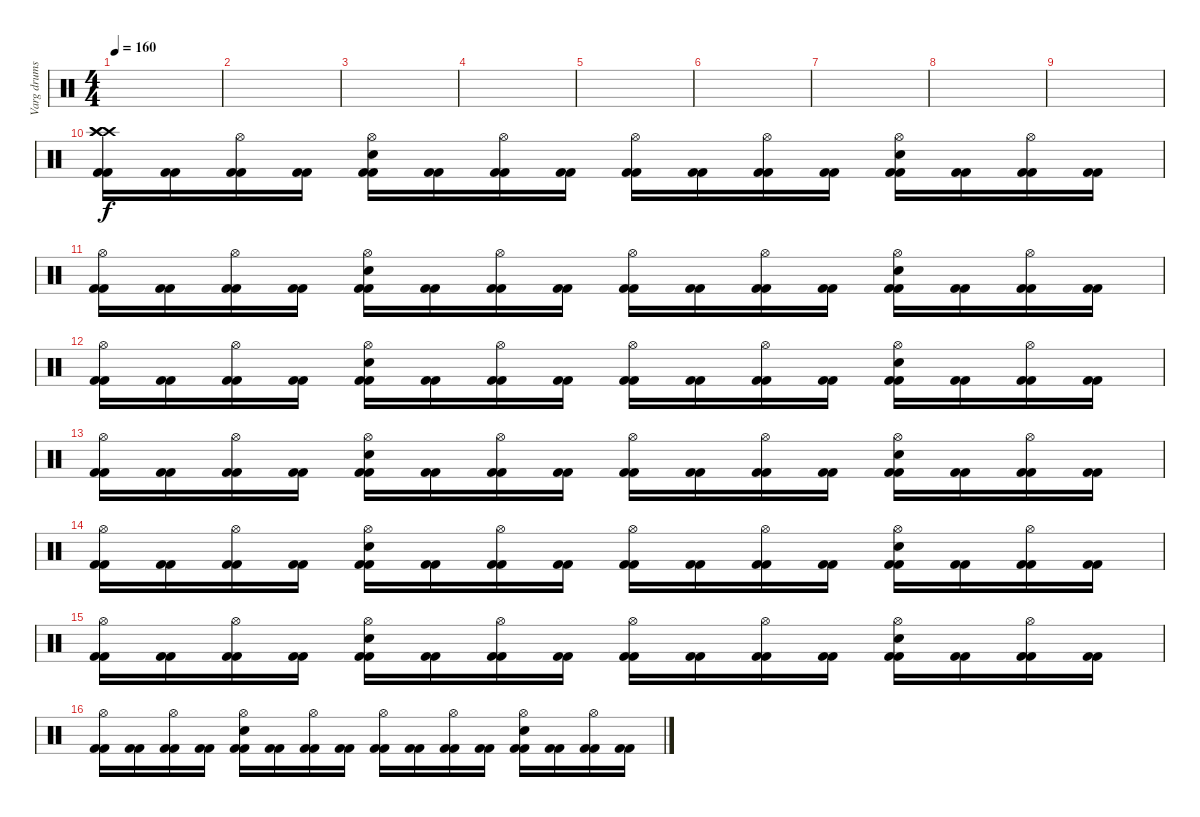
\track ("Varg drums" "Varg drums") {instrument percussion}
\staff {score}
\articulation defaults
\ts (4 4)
\tempo 160
\clef neutral
\ks c
|
|
|
|
|
|
|
|
|
("Crash high (hit)" "Crash high (hit)" "Crash high (hit)" "Kick (hit) 2" "Kick (hit) 2").16 ("Kick (hit) 2" "Kick (hit) 2").16 ("Hi-Hat (open)" "Kick (hit) 2" "Kick (hit) 2").16 ("Kick (hit) 2" "Kick (hit) 2").16 ("Hi-Hat (open)" "Electric Snare (hit)" "Kick (hit) 2" "Kick (hit) 2").16 ("Kick (hit) 2" "Kick (hit) 2").16 ("Hi-Hat (open)" "Kick (hit) 2" "Kick (hit) 2").16 ("Kick (hit) 2" "Kick (hit) 2").16 ("Hi-Hat (open)" "Kick (hit) 2" "Kick (hit) 2").16 ("Kick (hit) 2" "Kick (hit) 2").16 ("Hi-Hat (open)" "Kick (hit) 2" "Kick (hit) 2").16 ("Kick (hit) 2" "Kick (hit) 2").16 ("Hi-Hat (open)" "Electric Snare (hit)" "Kick (hit) 2" "Kick (hit) 2").16 ("Kick (hit) 2" "Kick (hit) 2").16 ("Hi-Hat (open)" "Kick (hit) 2" "Kick (hit) 2").16 ("Kick (hit) 2" "Kick (hit) 2").16 |
("Hi-Hat (open)" "Kick (hit) 2" "Kick (hit) 2").16 ("Kick (hit) 2" "Kick (hit) 2").16 ("Hi-Hat (open)" "Kick (hit) 2" "Kick (hit) 2").16 ("Kick (hit) 2" "Kick (hit) 2").16 ("Hi-Hat (open)" "Electric Snare (hit)" "Kick (hit) 2" "Kick (hit) 2").16 ("Kick (hit) 2" "Kick (hit) 2").16 ("Hi-Hat (open)" "Kick (hit) 2" "Kick (hit) 2").16 ("Kick (hit) 2" "Kick (hit) 2").16 ("Hi-Hat (open)" "Kick (hit) 2" "Kick (hit) 2").16 ("Kick (hit) 2" "Kick (hit) 2").16 ("Hi-Hat (open)" "Kick (hit) 2" "Kick (hit) 2").16 ("Kick (hit) 2" "Kick (hit) 2").16 ("Hi-Hat (open)" "Electric Snare (hit)" "Kick (hit) 2" "Kick (hit) 2").16 ("Kick (hit) 2" "Kick (hit) 2").16 ("Hi-Hat (open)" "Kick (hit) 2" "Kick (hit) 2").16 ("Kick (hit) 2" "Kick (hit) 2").16 |
("Hi-Hat (open)" "Kick (hit) 2" "Kick (hit) 2").16 ("Kick (hit) 2" "Kick (hit) 2").16 ("Hi-Hat (open)" "Kick (hit) 2" "Kick (hit) 2").16 ("Kick (hit) 2" "Kick (hit) 2").16 ("Hi-Hat (open)" "Electric Snare (hit)" "Kick (hit) 2" "Kick (hit) 2").16 ("Kick (hit) 2" "Kick (hit) 2").16 ("Hi-Hat (open)" "Kick (hit) 2" "Kick (hit) 2").16 ("Kick (hit) 2" "Kick (hit) 2").16 ("Hi-Hat (open)" "Kick (hit) 2" "Kick (hit) 2").16 ("Kick (hit) 2" "Kick (hit) 2").16 ("Hi-Hat (open)" "Kick (hit) 2" "Kick (hit) 2").16 ("Kick (hit) 2" "Kick (hit) 2").16 ("Hi-Hat (open)" "Electric Snare (hit)" "Kick (hit) 2" "Kick (hit) 2").16 ("Kick (hit) 2" "Kick (hit) 2").16 ("Hi-Hat (open)" "Kick (hit) 2" "Kick (hit) 2").16 ("Kick (hit) 2" "Kick (hit) 2").16 |
("Hi-Hat (open)" "Kick (hit) 2" "Kick (hit) 2").16 ("Kick (hit) 2" "Kick (hit) 2").16 ("Hi-Hat (open)" "Kick (hit) 2" "Kick (hit) 2").16 ("Kick (hit) 2" "Kick (hit) 2").16 ("Hi-Hat (open)" "Electric Snare (hit)" "Kick (hit) 2" "Kick (hit) 2").16 ("Kick (hit) 2" "Kick (hit) 2").16 ("Hi-Hat (open)" "Kick (hit) 2" "Kick (hit) 2").16 ("Kick (hit) 2" "Kick (hit) 2").16 ("Hi-Hat (open)" "Kick (hit) 2" "Kick (hit) 2").16 ("Kick (hit) 2" "Kick (hit) 2").16 ("Hi-Hat (open)" "Kick (hit) 2" "Kick (hit) 2").16 ("Kick (hit) 2" "Kick (hit) 2").16 ("Hi-Hat (open)" "Electric Snare (hit)" "Kick (hit) 2" "Kick (hit) 2").16 ("Kick (hit) 2" "Kick (hit) 2").16 ("Hi-Hat (open)" "Kick (hit) 2" "Kick (hit) 2").16 ("Kick (hit) 2" "Kick (hit) 2").16 |
("Hi-Hat (open)" "Kick (hit) 2" "Kick (hit) 2").16 ("Kick (hit) 2" "Kick (hit) 2").16 ("Hi-Hat (open)" "Kick (hit) 2" "Kick (hit) 2").16 ("Kick (hit) 2" "Kick (hit) 2").16 ("Hi-Hat (open)" "Electric Snare (hit)" "Kick (hit) 2" "Kick (hit) 2").16 ("Kick (hit) 2" "Kick (hit) 2").16 ("Hi-Hat (open)" "Kick (hit) 2" "Kick (hit) 2").16 ("Kick (hit) 2" "Kick (hit) 2").16 ("Hi-Hat (open)" "Kick (hit) 2" "Kick (hit) 2").16 ("Kick (hit) 2" "Kick (hit) 2").16 ("Hi-Hat (open)" "Kick (hit) 2" "Kick (hit) 2").16 ("Kick (hit) 2" "Kick (hit) 2").16 ("Hi-Hat (open)" "Electric Snare (hit)" "Kick (hit) 2" "Kick (hit) 2").16 ("Kick (hit) 2" "Kick (hit) 2").16 ("Hi-Hat (open)" "Kick (hit) 2" "Kick (hit) 2").16 ("Kick (hit) 2" "Kick (hit) 2").16 |
("Hi-Hat (open)" "Kick (hit) 2" "Kick (hit) 2").16 ("Kick (hit) 2" "Kick (hit) 2").16 ("Hi-Hat (open)" "Kick (hit) 2" "Kick (hit) 2").16 ("Kick (hit) 2" "Kick (hit) 2").16 ("Hi-Hat (open)" "Electric Snare (hit)" "Kick (hit) 2" "Kick (hit) 2").16 ("Kick (hit) 2" "Kick (hit) 2").16 ("Hi-Hat (open)" "Kick (hit) 2" "Kick (hit) 2").16 ("Kick (hit) 2" "Kick (hit) 2").16 ("Hi-Hat (open)" "Kick (hit) 2" "Kick (hit) 2").16 ("Kick (hit) 2" "Kick (hit) 2").16 ("Hi-Hat (open)" "Kick (hit) 2" "Kick (hit) 2").16 ("Kick (hit) 2" "Kick (hit) 2").16 ("Hi-Hat (open)" "Electric Snare (hit)" "Kick (hit) 2" "Kick (hit) 2").16 ("Kick (hit) 2" "Kick (hit) 2").16 ("Hi-Hat (open)" "Kick (hit) 2" "Kick (hit) 2").16 ("Kick (hit) 2" "Kick (hit) 2").16 |
("Hi-Hat (open)" "Kick (hit) 2" "Kick (hit) 2").16 ("Kick (hit) 2" "Kick (hit) 2").16 ("Hi-Hat (open)" "Kick (hit) 2" "Kick (hit) 2").16 ("Kick (hit) 2" "Kick (hit) 2").16 ("Hi-Hat (open)" "Electric Snare (hit)" "Kick (hit) 2" "Kick (hit) 2").16 ("Kick (hit) 2" "Kick (hit) 2").16 ("Hi-Hat (open)" "Kick (hit) 2" "Kick (hit) 2").16 ("Kick (hit) 2" "Kick (hit) 2").16 ("Hi-Hat (open)" "Kick (hit) 2" "Kick (hit) 2").16 ("Kick (hit) 2" "Kick (hit) 2").16 ("Hi-Hat (open)" "Kick (hit) 2" "Kick (hit) 2").16 ("Kick (hit) 2" "Kick (hit) 2").16 ("Hi-Hat (open)" "Electric Snare (hit)" "Kick (hit) 2" "Kick (hit) 2").16 ("Kick (hit) 2" "Kick (hit) 2").16 ("Hi-Hat (open)" "Kick (hit) 2" "Kick (hit) 2").16 ("Kick (hit) 2" "Kick (hit) 2").16
